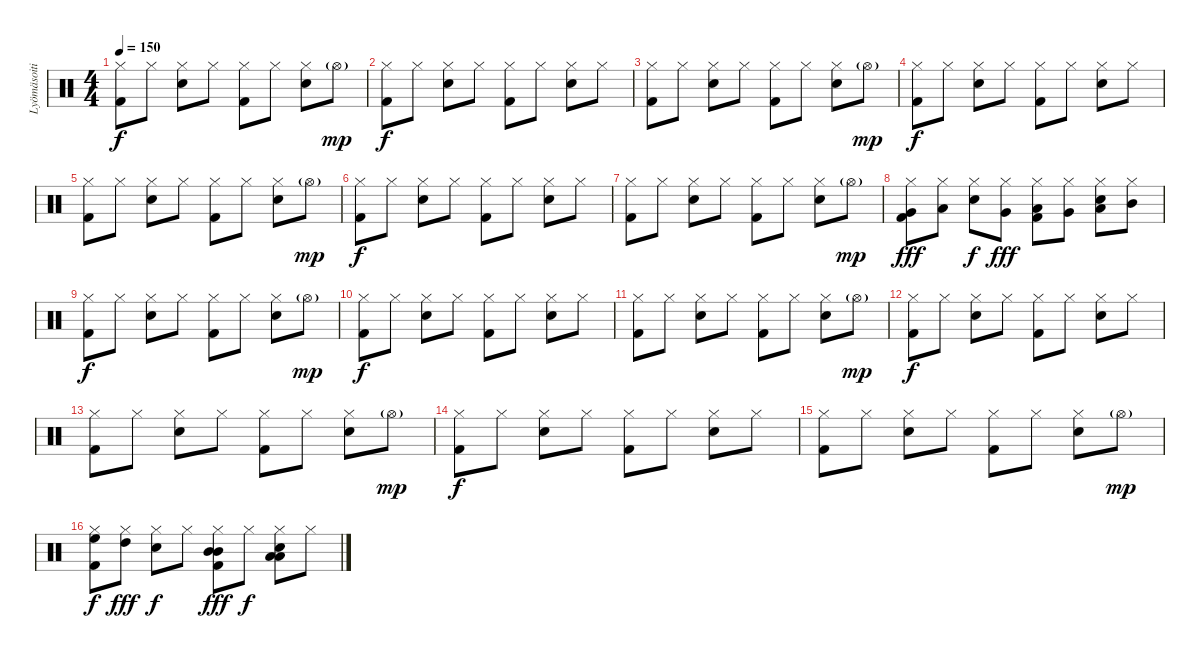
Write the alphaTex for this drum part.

\track ("Lyömäsoitin" "Lyömäsoiti") {instrument percussion}
\staff {score}
\articulation defaults
\ts (4 4)
\tempo 150
\clef neutral
\ks c
("Kick (hit) 2" "Hi-Hat (closed)").8{dy f} "Hi-Hat (closed)".8 ("Snare (hit) 2" "Hi-Hat (closed)").8 "Hi-Hat (closed)".8 ("Kick (hit) 2" "Hi-Hat (closed)").8 "Hi-Hat (closed)".8 ("Snare (hit) 2" "Hi-Hat (closed)").8 "Hi-Hat (open)"{g}.8{dy mp} |
("Kick (hit) 2" "Hi-Hat (closed)").8{dy f} "Hi-Hat (closed)".8 ("Snare (hit) 2" "Hi-Hat (closed)").8 "Hi-Hat (closed)".8 ("Kick (hit) 2" "Hi-Hat (closed)").8 "Hi-Hat (closed)".8 ("Snare (hit) 2" "Hi-Hat (closed)").8 "Hi-Hat (closed)".8 |
("Kick (hit) 2" "Hi-Hat (closed)").8 "Hi-Hat (closed)".8 ("Snare (hit) 2" "Hi-Hat (closed)").8 "Hi-Hat (closed)".8 ("Kick (hit) 2" "Hi-Hat (closed)").8 "Hi-Hat (closed)".8 ("Snare (hit) 2" "Hi-Hat (closed)").8 "Hi-Hat (open)"{g}.8{dy mp} |
("Kick (hit) 2" "Hi-Hat (closed)").8{dy f} "Hi-Hat (closed)".8 ("Snare (hit) 2" "Hi-Hat (closed)").8 "Hi-Hat (closed)".8 ("Kick (hit) 2" "Hi-Hat (closed)").8 "Hi-Hat (closed)".8 ("Snare (hit) 2" "Hi-Hat (closed)").8 "Hi-Hat (closed)".8 |
("Kick (hit) 2" "Hi-Hat (closed)").8 "Hi-Hat (closed)".8 ("Snare (hit) 2" "Hi-Hat (closed)").8 "Hi-Hat (closed)".8 ("Kick (hit) 2" "Hi-Hat (closed)").8 "Hi-Hat (closed)".8 ("Snare (hit) 2" "Hi-Hat (closed)").8 "Hi-Hat (open)"{g}.8{dy mp} |
("Kick (hit) 2" "Hi-Hat (closed)").8{dy f} "Hi-Hat (closed)".8 ("Snare (hit) 2" "Hi-Hat (closed)").8 "Hi-Hat (closed)".8 ("Kick (hit) 2" "Hi-Hat (closed)").8 "Hi-Hat (closed)".8 ("Snare (hit) 2" "Hi-Hat (closed)").8 "Hi-Hat (closed)".8 |
("Kick (hit) 2" "Hi-Hat (closed)").8 "Hi-Hat (closed)".8 ("Snare (hit) 2" "Hi-Hat (closed)").8 "Hi-Hat (closed)".8 ("Kick (hit) 2" "Hi-Hat (closed)").8 "Hi-Hat (closed)".8 ("Snare (hit) 2" "Hi-Hat (closed)").8 "Hi-Hat (open)"{g}.8{dy mp} |
("Kick (hit) 2" "Very Low Tom (hit)" "Hi-Hat (closed)").8{dy fff} ("Low Tom (hit)" "Hi-Hat (closed)").8 ("Snare (hit) 2" "Hi-Hat (closed)").8{dy f} ("Very Low Tom (hit)" "Hi-Hat (closed)").8{dy fff} ("Kick (hit) 2" "Low Tom (hit)" "Hi-Hat (closed)").8 ("Very Low Tom (hit)" "Hi-Hat (closed)").8 ("Low Tom (hit)" "Snare (hit) 2" "Hi-Hat (closed)").8 ("Mid Tom (hit)" "Hi-Hat (closed)").8 |
("Kick (hit) 2" "Hi-Hat (closed)").8{dy f} "Hi-Hat (closed)".8 ("Snare (hit) 2" "Hi-Hat (closed)").8 "Hi-Hat (closed)".8 ("Kick (hit) 2" "Hi-Hat (closed)").8 "Hi-Hat (closed)".8 ("Snare (hit) 2" "Hi-Hat (closed)").8 "Hi-Hat (open)"{g}.8{dy mp} |
("Kick (hit) 2" "Hi-Hat (closed)").8{dy f} "Hi-Hat (closed)".8 ("Snare (hit) 2" "Hi-Hat (closed)").8 "Hi-Hat (closed)".8 ("Kick (hit) 2" "Hi-Hat (closed)").8 "Hi-Hat (closed)".8 ("Snare (hit) 2" "Hi-Hat (closed)").8 "Hi-Hat (closed)".8 |
("Kick (hit) 2" "Hi-Hat (closed)").8 "Hi-Hat (closed)".8 ("Snare (hit) 2" "Hi-Hat (closed)").8 "Hi-Hat (closed)".8 ("Kick (hit) 2" "Hi-Hat (closed)").8 "Hi-Hat (closed)".8 ("Snare (hit) 2" "Hi-Hat (closed)").8 "Hi-Hat (open)"{g}.8{dy mp} |
("Kick (hit) 2" "Hi-Hat (closed)").8{dy f} "Hi-Hat (closed)".8 ("Snare (hit) 2" "Hi-Hat (closed)").8 "Hi-Hat (closed)".8 ("Kick (hit) 2" "Hi-Hat (closed)").8 "Hi-Hat (closed)".8 ("Snare (hit) 2" "Hi-Hat (closed)").8 "Hi-Hat (closed)".8 |
("Kick (hit) 2" "Hi-Hat (closed)").8 "Hi-Hat (closed)".8 ("Snare (hit) 2" "Hi-Hat (closed)").8 "Hi-Hat (closed)".8 ("Kick (hit) 2" "Hi-Hat (closed)").8 "Hi-Hat (closed)".8 ("Snare (hit) 2" "Hi-Hat (closed)").8 "Hi-Hat (open)"{g}.8{dy mp} |
("Kick (hit) 2" "Hi-Hat (closed)").8{dy f} "Hi-Hat (closed)".8 ("Snare (hit) 2" "Hi-Hat (closed)").8 "Hi-Hat (closed)".8 ("Kick (hit) 2" "Hi-Hat (closed)").8 "Hi-Hat (closed)".8 ("Snare (hit) 2" "Hi-Hat (closed)").8 "Hi-Hat (closed)".8 |
("Kick (hit) 2" "Hi-Hat (closed)").8 "Hi-Hat (closed)".8 ("Snare (hit) 2" "Hi-Hat (closed)").8 "Hi-Hat (closed)".8 ("Kick (hit) 2" "Hi-Hat (closed)").8 "Hi-Hat (closed)".8 ("Snare (hit) 2" "Hi-Hat (closed)").8 "Hi-Hat (open)"{g}.8{dy mp} |
("Kick (hit) 2" "High Floor Tom (hit)" "Hi-Hat (closed)").8{dy f} ("High Tom (hit)" "Hi-Hat (closed)").8{dy fff} ("Snare (hit) 2" "Hi-Hat (closed)").8{dy f} "Hi-Hat (closed)".8 ("Kick (hit) 2" "Mid Tom (hit)" "Mid Tom (hit)" "Hi-Hat (closed)").8{dy fff} "Hi-Hat (closed)".8{dy f} ("Low Tom (hit)" "Low Tom (hit)" "Snare (hit) 2" "Hi-Hat (closed)").8 "Hi-Hat (closed)".8
